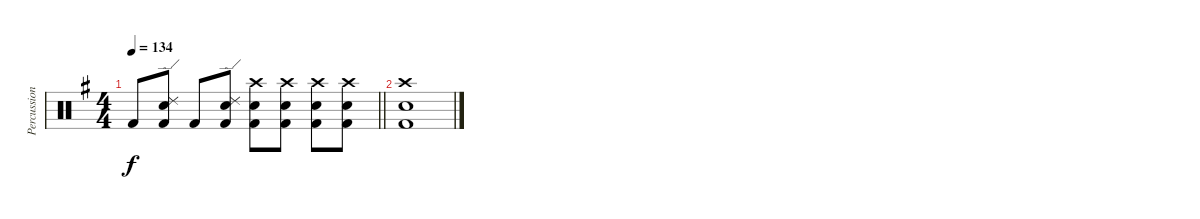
\track ("Percussion" "Percussion") {instrument percussion}
\staff {score}
\articulation defaults
\ts (4 4)
\tempo 134
\clef neutral
\barLineRight lightlight
\ks eminor "Kick (hit) 2".8{dy f}
("Ride (edge) 2" "Electric Snare (hit)" "Kick (hit) 2").8 "Kick (hit) 2".8 ("Ride (edge) 2" "Electric Snare (hit)" "Kick (hit) 2").8 ("Crash high (hit)" "Electric Snare (hit)" "Kick (hit) 2").8 ("Crash high (hit)" "Electric Snare (hit)" "Kick (hit) 2").8 ("Crash high (hit)" "Electric Snare (hit)" "Kick (hit) 2").8 ("Crash high (hit)" "Electric Snare (hit)" "Kick (hit) 2").8 |
("Crash high (hit)" "Electric Snare (hit)" "Kick (hit) 2").1
